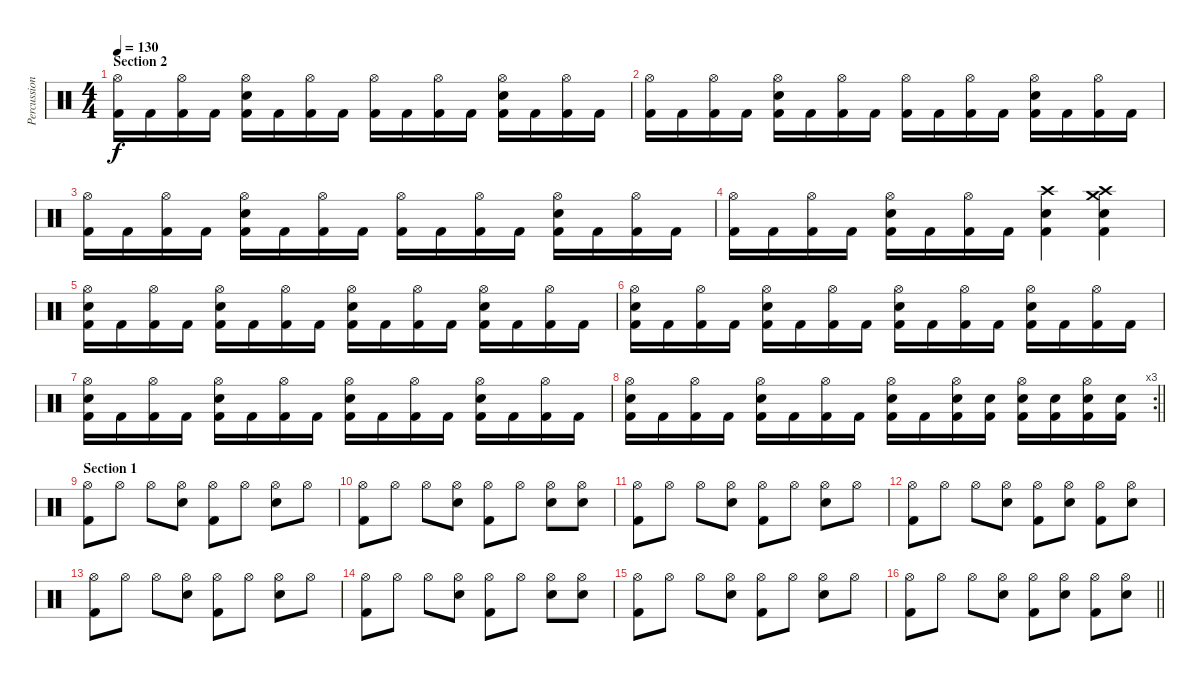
\track ("Percussions" "Percussion") {instrument percussion}
\staff {score}
\articulation defaults
\ts (4 4)
\section ("" "Section 2")
\tempo 130
\clef neutral
\ks c
("Hi-Hat (open)" "Kick (hit) 2").16{dy f} "Kick (hit) 2".16 ("Hi-Hat (open)" "Kick (hit) 2").16 "Kick (hit) 2".16 ("Hi-Hat (open)" "Electric Snare (hit)" "Kick (hit) 2").16 "Kick (hit) 2".16 ("Hi-Hat (open)" "Kick (hit) 2").16 "Kick (hit) 2".16 ("Hi-Hat (open)" "Kick (hit) 2").16 "Kick (hit) 2".16 ("Hi-Hat (open)" "Kick (hit) 2").16 "Kick (hit) 2".16 ("Hi-Hat (open)" "Electric Snare (hit)" "Kick (hit) 2").16 "Kick (hit) 2".16 ("Hi-Hat (open)" "Kick (hit) 2").16 "Kick (hit) 2".16 |
("Hi-Hat (open)" "Kick (hit) 2").16 "Kick (hit) 2".16 ("Hi-Hat (open)" "Kick (hit) 2").16 "Kick (hit) 2".16 ("Hi-Hat (open)" "Electric Snare (hit)" "Kick (hit) 2").16 "Kick (hit) 2".16 ("Hi-Hat (open)" "Kick (hit) 2").16 "Kick (hit) 2".16 ("Hi-Hat (open)" "Kick (hit) 2").16 "Kick (hit) 2".16 ("Hi-Hat (open)" "Kick (hit) 2").16 "Kick (hit) 2".16 ("Hi-Hat (open)" "Electric Snare (hit)" "Kick (hit) 2").16 "Kick (hit) 2".16 ("Hi-Hat (open)" "Kick (hit) 2").16 "Kick (hit) 2".16 |
("Hi-Hat (open)" "Kick (hit) 2").16 "Kick (hit) 2".16 ("Hi-Hat (open)" "Kick (hit) 2").16 "Kick (hit) 2".16 ("Hi-Hat (open)" "Electric Snare (hit)" "Kick (hit) 2").16 "Kick (hit) 2".16 ("Hi-Hat (open)" "Kick (hit) 2").16 "Kick (hit) 2".16 ("Hi-Hat (open)" "Kick (hit) 2").16 "Kick (hit) 2".16 ("Hi-Hat (open)" "Kick (hit) 2").16 "Kick (hit) 2".16 ("Hi-Hat (open)" "Electric Snare (hit)" "Kick (hit) 2").16 "Kick (hit) 2".16 ("Hi-Hat (open)" "Kick (hit) 2").16 "Kick (hit) 2".16 |
("Hi-Hat (open)" "Kick (hit) 2").16 "Kick (hit) 2".16 ("Hi-Hat (open)" "Kick (hit) 2").16 "Kick (hit) 2".16 ("Hi-Hat (open)" "Electric Snare (hit)" "Kick (hit) 2").16 "Kick (hit) 2".16 ("Hi-Hat (open)" "Kick (hit) 2").16 "Kick (hit) 2".16 ("Crash high (hit)" "Electric Snare (hit)" "Kick (hit) 2").4 ("Crash medium (hit)" "Crash high (hit)" "Electric Snare (hit)" "Kick (hit) 2").4 |
("Hi-Hat (open)" "Electric Snare (hit)" "Kick (hit) 2").16 "Kick (hit) 2".16 ("Hi-Hat (open)" "Kick (hit) 2").16 "Kick (hit) 2".16 ("Hi-Hat (open)" "Electric Snare (hit)" "Kick (hit) 2").16 "Kick (hit) 2".16 ("Hi-Hat (open)" "Kick (hit) 2").16 "Kick (hit) 2".16 ("Hi-Hat (open)" "Electric Snare (hit)" "Kick (hit) 2").16 "Kick (hit) 2".16 ("Hi-Hat (open)" "Kick (hit) 2").16 "Kick (hit) 2".16 ("Hi-Hat (open)" "Electric Snare (hit)" "Kick (hit) 2").16 "Kick (hit) 2".16 ("Hi-Hat (open)" "Kick (hit) 2").16 "Kick (hit) 2".16 |
("Hi-Hat (open)" "Electric Snare (hit)" "Kick (hit) 2").16 "Kick (hit) 2".16 ("Hi-Hat (open)" "Kick (hit) 2").16 "Kick (hit) 2".16 ("Hi-Hat (open)" "Electric Snare (hit)" "Kick (hit) 2").16 "Kick (hit) 2".16 ("Hi-Hat (open)" "Kick (hit) 2").16 "Kick (hit) 2".16 ("Hi-Hat (open)" "Electric Snare (hit)" "Kick (hit) 2").16 "Kick (hit) 2".16 ("Hi-Hat (open)" "Kick (hit) 2").16 "Kick (hit) 2".16 ("Hi-Hat (open)" "Electric Snare (hit)" "Kick (hit) 2").16 "Kick (hit) 2".16 ("Hi-Hat (open)" "Kick (hit) 2").16 "Kick (hit) 2".16 |
("Hi-Hat (open)" "Electric Snare (hit)" "Kick (hit) 2").16 "Kick (hit) 2".16 ("Hi-Hat (open)" "Kick (hit) 2").16 "Kick (hit) 2".16 ("Hi-Hat (open)" "Electric Snare (hit)" "Kick (hit) 2").16 "Kick (hit) 2".16 ("Hi-Hat (open)" "Kick (hit) 2").16 "Kick (hit) 2".16 ("Hi-Hat (open)" "Electric Snare (hit)" "Kick (hit) 2").16 "Kick (hit) 2".16 ("Hi-Hat (open)" "Kick (hit) 2").16 "Kick (hit) 2".16 ("Hi-Hat (open)" "Electric Snare (hit)" "Kick (hit) 2").16 "Kick (hit) 2".16 ("Hi-Hat (open)" "Kick (hit) 2").16 "Kick (hit) 2".16 |
\rc 3
\barLineRight lightlight
("Hi-Hat (open)" "Electric Snare (hit)" "Kick (hit) 2").16 "Kick (hit) 2".16 ("Hi-Hat (open)" "Kick (hit) 2").16 "Kick (hit) 2".16 ("Hi-Hat (open)" "Electric Snare (hit)" "Kick (hit) 2").16 "Kick (hit) 2".16 ("Hi-Hat (open)" "Kick (hit) 2").16 "Kick (hit) 2".16 ("Hi-Hat (open)" "Electric Snare (hit)" "Kick (hit) 2").16 "Kick (hit) 2".16 ("Hi-Hat (open)" "Electric Snare (hit)" "Kick (hit) 2").16 ("Electric Snare (hit)" "Kick (hit) 2").16 ("Hi-Hat (open)" "Electric Snare (hit)" "Kick (hit) 2").16 ("Electric Snare (hit)" "Kick (hit) 2").16 ("Hi-Hat (open)" "Electric Snare (hit)" "Kick (hit) 2").16 ("Electric Snare (hit)" "Kick (hit) 2").16 |
\section ("" "Section 1")
("Hi-Hat (open)" "Kick (hit) 2").8 "Hi-Hat (open)".8 "Hi-Hat (open)".8 ("Hi-Hat (open)" "Electric Snare (hit)").8 ("Hi-Hat (open)" "Kick (hit) 2").8 "Hi-Hat (open)".8 ("Hi-Hat (open)" "Electric Snare (hit)").8 "Hi-Hat (open)".8 |
("Hi-Hat (open)" "Kick (hit) 2").8 "Hi-Hat (open)".8 "Hi-Hat (open)".8 ("Hi-Hat (open)" "Electric Snare (hit)").8 ("Hi-Hat (open)" "Kick (hit) 2").8 "Hi-Hat (open)".8 ("Hi-Hat (open)" "Electric Snare (hit)").8 ("Hi-Hat (open)" "Electric Snare (hit)").8 |
("Hi-Hat (open)" "Kick (hit) 2").8 "Hi-Hat (open)".8 "Hi-Hat (open)".8 ("Hi-Hat (open)" "Electric Snare (hit)").8 ("Hi-Hat (open)" "Kick (hit) 2").8 "Hi-Hat (open)".8 ("Hi-Hat (open)" "Electric Snare (hit)").8 "Hi-Hat (open)".8 |
("Hi-Hat (open)" "Kick (hit) 2").8 "Hi-Hat (open)".8 "Hi-Hat (open)".8 ("Hi-Hat (open)" "Electric Snare (hit)").8 ("Hi-Hat (open)" "Kick (hit) 2").8 ("Hi-Hat (open)" "Electric Snare (hit)").8 ("Hi-Hat (open)" "Kick (hit) 2").8 ("Hi-Hat (open)" "Electric Snare (hit)").8 |
("Hi-Hat (open)" "Kick (hit) 2").8 "Hi-Hat (open)".8 "Hi-Hat (open)".8 ("Hi-Hat (open)" "Electric Snare (hit)").8 ("Hi-Hat (open)" "Kick (hit) 2").8 "Hi-Hat (open)".8 ("Hi-Hat (open)" "Electric Snare (hit)").8 "Hi-Hat (open)".8 |
("Hi-Hat (open)" "Kick (hit) 2").8 "Hi-Hat (open)".8 "Hi-Hat (open)".8 ("Hi-Hat (open)" "Electric Snare (hit)").8 ("Hi-Hat (open)" "Kick (hit) 2").8 "Hi-Hat (open)".8 ("Hi-Hat (open)" "Electric Snare (hit)").8 ("Hi-Hat (open)" "Electric Snare (hit)").8 |
("Hi-Hat (open)" "Kick (hit) 2").8 "Hi-Hat (open)".8 "Hi-Hat (open)".8 ("Hi-Hat (open)" "Electric Snare (hit)").8 ("Hi-Hat (open)" "Kick (hit) 2").8 "Hi-Hat (open)".8 ("Hi-Hat (open)" "Electric Snare (hit)").8 "Hi-Hat (open)".8 |
\barLineRight lightlight
("Hi-Hat (open)" "Kick (hit) 2").8 "Hi-Hat (open)".8 "Hi-Hat (open)".8 ("Hi-Hat (open)" "Electric Snare (hit)").8 ("Hi-Hat (open)" "Kick (hit) 2").8 ("Hi-Hat (open)" "Electric Snare (hit)").8 ("Hi-Hat (open)" "Kick (hit) 2").8 ("Hi-Hat (open)" "Electric Snare (hit)").8
